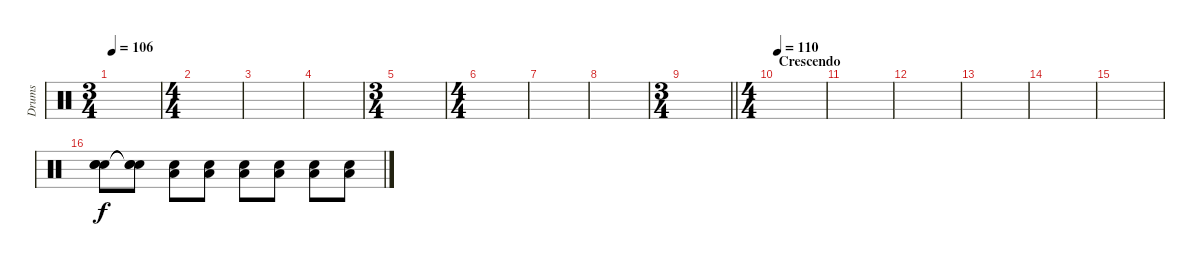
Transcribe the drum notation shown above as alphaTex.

\track ("Drums" "Drums") {instrument percussion}
\staff {score}
\articulation defaults
\ts (3 4)
\tempo 106
\clef neutral
\ks c
|
\ts (4 4)
|
|
|
\ts (3 4)
|
\ts (4 4)
|
|
|
\ts (3 4)
\barLineRight lightlight
|
\ts (4 4)
\section ("" "Crescendo")
\tempo 110
|
|
|
|
|
|
("Electric Snare (hit)" "Electric Snare (hit)" "Electric Snare (hit)").8 ("Snare (hit)"{t} "Snare (hit)"{t} "Snare (hit)"{t}).8{volume 5} ("Low Floor Tom (hit)" "Electric Snare (hit)").8{volume 9} ("Low Floor Tom (hit)" "Electric Snare (hit)").8 ("Low Floor Tom (hit)" "Electric Snare (hit)").8 ("Low Floor Tom (hit)" "Electric Snare (hit)").8 ("Low Floor Tom (hit)" "Electric Snare (hit)").8 ("Low Floor Tom (hit)" "Electric Snare (hit)").8
